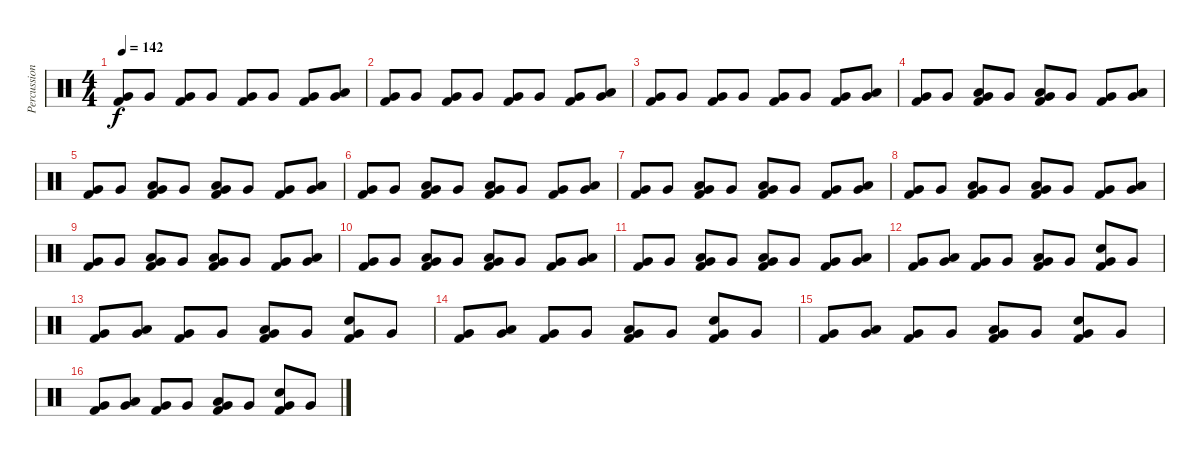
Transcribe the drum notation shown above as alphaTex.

\track ("Percussion" "Percussion") {instrument percussion}
\staff {score}
\articulation defaults
\ts (4 4)
\tempo 142
\clef neutral
\ks c
("Very Low Tom (hit)" "Kick (hit) 2").8{dy f} "Very Low Tom (hit)".8 ("Very Low Tom (hit)" "Kick (hit) 2").8 "Very Low Tom (hit)".8 ("Very Low Tom (hit)" "Kick (hit) 2").8 "Very Low Tom (hit)".8 ("Very Low Tom (hit)" "Kick (hit) 2").8 ("Low Tom (hit)" "Very Low Tom (hit)").8 |
("Very Low Tom (hit)" "Kick (hit) 2").8 "Very Low Tom (hit)".8 ("Very Low Tom (hit)" "Kick (hit) 2").8 "Very Low Tom (hit)".8 ("Very Low Tom (hit)" "Kick (hit) 2").8 "Very Low Tom (hit)".8 ("Very Low Tom (hit)" "Kick (hit) 2").8 ("Low Tom (hit)" "Very Low Tom (hit)").8 |
("Very Low Tom (hit)" "Kick (hit) 2").8 "Very Low Tom (hit)".8 ("Very Low Tom (hit)" "Kick (hit) 2").8 "Very Low Tom (hit)".8 ("Very Low Tom (hit)" "Kick (hit) 2").8 "Very Low Tom (hit)".8 ("Very Low Tom (hit)" "Kick (hit) 2").8 ("Low Tom (hit)" "Very Low Tom (hit)").8 |
("Very Low Tom (hit)" "Kick (hit) 2").8 "Very Low Tom (hit)".8 ("Low Tom (hit)" "Very Low Tom (hit)" "Kick (hit) 2").8 "Very Low Tom (hit)".8 ("Low Tom (hit)" "Very Low Tom (hit)" "Kick (hit) 2").8 "Very Low Tom (hit)".8 ("Very Low Tom (hit)" "Kick (hit) 2").8 ("Low Tom (hit)" "Very Low Tom (hit)").8 |
("Very Low Tom (hit)" "Kick (hit) 2").8 "Very Low Tom (hit)".8 ("Low Tom (hit)" "Very Low Tom (hit)" "Kick (hit) 2").8 "Very Low Tom (hit)".8 ("Low Tom (hit)" "Very Low Tom (hit)" "Kick (hit) 2").8 "Very Low Tom (hit)".8 ("Very Low Tom (hit)" "Kick (hit) 2").8 ("Low Tom (hit)" "Very Low Tom (hit)").8 |
("Very Low Tom (hit)" "Kick (hit) 2").8 "Very Low Tom (hit)".8 ("Low Tom (hit)" "Very Low Tom (hit)" "Kick (hit) 2").8 "Very Low Tom (hit)".8 ("Low Tom (hit)" "Very Low Tom (hit)" "Kick (hit) 2").8 "Very Low Tom (hit)".8 ("Very Low Tom (hit)" "Kick (hit) 2").8 ("Low Tom (hit)" "Very Low Tom (hit)").8 |
("Very Low Tom (hit)" "Kick (hit) 2").8 "Very Low Tom (hit)".8 ("Low Tom (hit)" "Very Low Tom (hit)" "Kick (hit) 2").8 "Very Low Tom (hit)".8 ("Low Tom (hit)" "Very Low Tom (hit)" "Kick (hit) 2").8 "Very Low Tom (hit)".8 ("Very Low Tom (hit)" "Kick (hit) 2").8 ("Low Tom (hit)" "Very Low Tom (hit)").8 |
("Very Low Tom (hit)" "Kick (hit) 2").8 "Very Low Tom (hit)".8 ("Low Tom (hit)" "Very Low Tom (hit)" "Kick (hit) 2").8 "Very Low Tom (hit)".8 ("Low Tom (hit)" "Very Low Tom (hit)" "Kick (hit) 2").8 "Very Low Tom (hit)".8 ("Very Low Tom (hit)" "Kick (hit) 2").8 ("Low Tom (hit)" "Very Low Tom (hit)").8 |
("Very Low Tom (hit)" "Kick (hit) 2").8 "Very Low Tom (hit)".8 ("Low Tom (hit)" "Very Low Tom (hit)" "Kick (hit) 2").8 "Very Low Tom (hit)".8 ("Low Tom (hit)" "Very Low Tom (hit)" "Kick (hit) 2").8 "Very Low Tom (hit)".8 ("Very Low Tom (hit)" "Kick (hit) 2").8 ("Low Tom (hit)" "Very Low Tom (hit)").8 |
("Very Low Tom (hit)" "Kick (hit) 2").8 "Very Low Tom (hit)".8 ("Low Tom (hit)" "Very Low Tom (hit)" "Kick (hit) 2").8 "Very Low Tom (hit)".8 ("Low Tom (hit)" "Very Low Tom (hit)" "Kick (hit) 2").8 "Very Low Tom (hit)".8 ("Very Low Tom (hit)" "Kick (hit) 2").8 ("Low Tom (hit)" "Very Low Tom (hit)").8 |
("Very Low Tom (hit)" "Kick (hit) 2").8 "Very Low Tom (hit)".8 ("Low Tom (hit)" "Very Low Tom (hit)" "Kick (hit) 2").8 "Very Low Tom (hit)".8 ("Low Tom (hit)" "Very Low Tom (hit)" "Kick (hit) 2").8 "Very Low Tom (hit)".8 ("Very Low Tom (hit)" "Kick (hit) 2").8 ("Low Tom (hit)" "Very Low Tom (hit)").8 |
("Very Low Tom (hit)" "Kick (hit) 2").8 ("Low Tom (hit)" "Very Low Tom (hit)").8 ("Very Low Tom (hit)" "Kick (hit) 2").8 "Very Low Tom (hit)".8 ("Low Tom (hit)" "Very Low Tom (hit)" "Kick (hit) 2").8 "Very Low Tom (hit)".8 ("Very Low Tom (hit)" "Electric Snare (hit)" "Kick (hit) 2").8 "Very Low Tom (hit)".8 |
("Very Low Tom (hit)" "Kick (hit) 2").8 ("Low Tom (hit)" "Very Low Tom (hit)").8 ("Very Low Tom (hit)" "Kick (hit) 2").8 "Very Low Tom (hit)".8 ("Low Tom (hit)" "Very Low Tom (hit)" "Kick (hit) 2").8 "Very Low Tom (hit)".8 ("Very Low Tom (hit)" "Electric Snare (hit)" "Kick (hit) 2").8 "Very Low Tom (hit)".8 |
("Very Low Tom (hit)" "Kick (hit) 2").8 ("Low Tom (hit)" "Very Low Tom (hit)").8 ("Very Low Tom (hit)" "Kick (hit) 2").8 "Very Low Tom (hit)".8 ("Low Tom (hit)" "Very Low Tom (hit)" "Kick (hit) 2").8 "Very Low Tom (hit)".8 ("Very Low Tom (hit)" "Electric Snare (hit)" "Kick (hit) 2").8 "Very Low Tom (hit)".8 |
("Very Low Tom (hit)" "Kick (hit) 2").8 ("Low Tom (hit)" "Very Low Tom (hit)").8 ("Very Low Tom (hit)" "Kick (hit) 2").8 "Very Low Tom (hit)".8 ("Low Tom (hit)" "Very Low Tom (hit)" "Kick (hit) 2").8 "Very Low Tom (hit)".8 ("Very Low Tom (hit)" "Electric Snare (hit)" "Kick (hit) 2").8 "Very Low Tom (hit)".8 |
("Very Low Tom (hit)" "Kick (hit) 2").8 ("Low Tom (hit)" "Very Low Tom (hit)").8 ("Very Low Tom (hit)" "Kick (hit) 2").8 "Very Low Tom (hit)".8 ("Low Tom (hit)" "Very Low Tom (hit)" "Kick (hit) 2").8 "Very Low Tom (hit)".8 ("Very Low Tom (hit)" "Electric Snare (hit)" "Kick (hit) 2").8 "Very Low Tom (hit)".8
